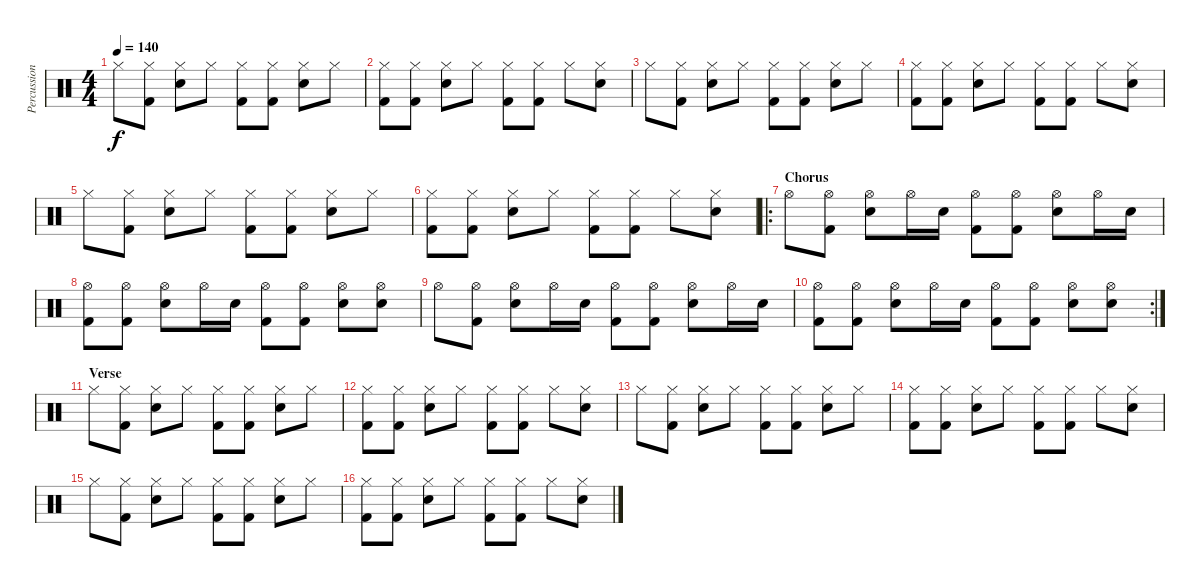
\track ("Percussion" "Percussion") {instrument percussion}
\staff {score}
\articulation defaults
\ts (4 4)
\tempo 140
\clef neutral
\ks c "Hi-Hat (closed)".8{dy f}
("Hi-Hat (closed)" "Kick (hit) 2").8 ("Hi-Hat (closed)" "Snare (hit) 2").8 "Hi-Hat (closed)".8 ("Hi-Hat (closed)" "Kick (hit) 2").8 ("Hi-Hat (closed)" "Kick (hit) 2").8 ("Hi-Hat (closed)" "Snare (hit) 2").8 "Hi-Hat (closed)".8 |
("Hi-Hat (closed)" "Kick (hit) 2").8 ("Hi-Hat (closed)" "Kick (hit) 2").8 ("Hi-Hat (closed)" "Snare (hit) 2").8 "Hi-Hat (closed)".8 ("Hi-Hat (closed)" "Kick (hit) 2").8 ("Hi-Hat (closed)" "Kick (hit) 2").8 "Hi-Hat (closed)".8 ("Hi-Hat (closed)" "Snare (hit) 2").8 |
"Hi-Hat (closed)".8 ("Hi-Hat (closed)" "Kick (hit) 2").8 ("Hi-Hat (closed)" "Snare (hit) 2").8 "Hi-Hat (closed)".8 ("Hi-Hat (closed)" "Kick (hit) 2").8 ("Hi-Hat (closed)" "Kick (hit) 2").8 ("Hi-Hat (closed)" "Snare (hit) 2").8 "Hi-Hat (closed)".8 |
("Hi-Hat (closed)" "Kick (hit) 2").8 ("Hi-Hat (closed)" "Kick (hit) 2").8 ("Hi-Hat (closed)" "Snare (hit) 2").8 "Hi-Hat (closed)".8 ("Hi-Hat (closed)" "Kick (hit) 2").8 ("Hi-Hat (closed)" "Kick (hit) 2").8 "Hi-Hat (closed)".8 ("Hi-Hat (closed)" "Snare (hit) 2").8 |
"Hi-Hat (closed)".8 ("Hi-Hat (closed)" "Kick (hit) 2").8 ("Hi-Hat (closed)" "Snare (hit) 2").8 "Hi-Hat (closed)".8 ("Hi-Hat (closed)" "Kick (hit) 2").8 ("Hi-Hat (closed)" "Kick (hit) 2").8 ("Hi-Hat (closed)" "Snare (hit) 2").8 "Hi-Hat (closed)".8 |
("Hi-Hat (closed)" "Kick (hit) 2").8 ("Hi-Hat (closed)" "Kick (hit) 2").8 ("Hi-Hat (closed)" "Snare (hit) 2").8 "Hi-Hat (closed)".8 ("Hi-Hat (closed)" "Kick (hit) 2").8 ("Hi-Hat (closed)" "Kick (hit) 2").8 "Hi-Hat (closed)".8 ("Hi-Hat (closed)" "Snare (hit) 2").8 |
\ro
\section ("" "Chorus")
"Hi-Hat (open)".8 ("Hi-Hat (open)" "Kick (hit) 2").8 ("Hi-Hat (open)" "Snare (hit) 2").8 "Hi-Hat (open)".16 "Snare (hit) 2".16 ("Hi-Hat (open)" "Kick (hit) 2").8 ("Hi-Hat (open)" "Kick (hit) 2").8 ("Hi-Hat (open)" "Snare (hit) 2").8 "Hi-Hat (open)".16 "Snare (hit) 2".16 |
("Hi-Hat (open)" "Kick (hit) 2").8 ("Hi-Hat (open)" "Kick (hit) 2").8 ("Hi-Hat (open)" "Snare (hit) 2").8 "Hi-Hat (open)".16 "Snare (hit) 2".16 ("Hi-Hat (open)" "Kick (hit) 2").8 ("Hi-Hat (open)" "Kick (hit) 2").8 ("Hi-Hat (open)" "Snare (hit) 2").8 ("Hi-Hat (open)" "Snare (hit) 2").8 |
"Hi-Hat (open)".8 ("Hi-Hat (open)" "Kick (hit) 2").8 ("Hi-Hat (open)" "Snare (hit) 2").8 "Hi-Hat (open)".16 "Snare (hit) 2".16 ("Hi-Hat (open)" "Kick (hit) 2").8 ("Hi-Hat (open)" "Kick (hit) 2").8 ("Hi-Hat (open)" "Snare (hit) 2").8 "Hi-Hat (open)".16 "Snare (hit) 2".16 |
\rc 2
("Hi-Hat (open)" "Kick (hit) 2").8 ("Hi-Hat (open)" "Kick (hit) 2").8 ("Hi-Hat (open)" "Snare (hit) 2").8 "Hi-Hat (open)".16 "Snare (hit) 2".16 ("Hi-Hat (open)" "Kick (hit) 2").8 ("Hi-Hat (open)" "Kick (hit) 2").8 ("Hi-Hat (open)" "Snare (hit) 2").8 ("Hi-Hat (open)" "Snare (hit) 2").8 |
\section ("" "Verse")
"Hi-Hat (closed)".8 ("Hi-Hat (closed)" "Kick (hit) 2").8 ("Hi-Hat (closed)" "Snare (hit) 2").8 "Hi-Hat (closed)".8 ("Hi-Hat (closed)" "Kick (hit) 2").8 ("Hi-Hat (closed)" "Kick (hit) 2").8 ("Hi-Hat (closed)" "Snare (hit) 2").8 "Hi-Hat (closed)".8 |
("Hi-Hat (closed)" "Kick (hit) 2").8 ("Hi-Hat (closed)" "Kick (hit) 2").8 ("Hi-Hat (closed)" "Snare (hit) 2").8 "Hi-Hat (closed)".8 ("Hi-Hat (closed)" "Kick (hit) 2").8 ("Hi-Hat (closed)" "Kick (hit) 2").8 "Hi-Hat (closed)".8 ("Hi-Hat (closed)" "Snare (hit) 2").8 |
"Hi-Hat (closed)".8 ("Hi-Hat (closed)" "Kick (hit) 2").8 ("Hi-Hat (closed)" "Snare (hit) 2").8 "Hi-Hat (closed)".8 ("Hi-Hat (closed)" "Kick (hit) 2").8 ("Hi-Hat (closed)" "Kick (hit) 2").8 ("Hi-Hat (closed)" "Snare (hit) 2").8 "Hi-Hat (closed)".8 |
("Hi-Hat (closed)" "Kick (hit) 2").8 ("Hi-Hat (closed)" "Kick (hit) 2").8 ("Hi-Hat (closed)" "Snare (hit) 2").8 "Hi-Hat (closed)".8 ("Hi-Hat (closed)" "Kick (hit) 2").8 ("Hi-Hat (closed)" "Kick (hit) 2").8 "Hi-Hat (closed)".8 ("Hi-Hat (closed)" "Snare (hit) 2").8 |
"Hi-Hat (closed)".8 ("Hi-Hat (closed)" "Kick (hit) 2").8 ("Hi-Hat (closed)" "Snare (hit) 2").8 "Hi-Hat (closed)".8 ("Hi-Hat (closed)" "Kick (hit) 2").8 ("Hi-Hat (closed)" "Kick (hit) 2").8 ("Hi-Hat (closed)" "Snare (hit) 2").8 "Hi-Hat (closed)".8 |
("Hi-Hat (closed)" "Kick (hit) 2").8 ("Hi-Hat (closed)" "Kick (hit) 2").8 ("Hi-Hat (closed)" "Snare (hit) 2").8 "Hi-Hat (closed)".8 ("Hi-Hat (closed)" "Kick (hit) 2").8 ("Hi-Hat (closed)" "Kick (hit) 2").8 "Hi-Hat (closed)".8 ("Hi-Hat (closed)" "Snare (hit) 2").8
